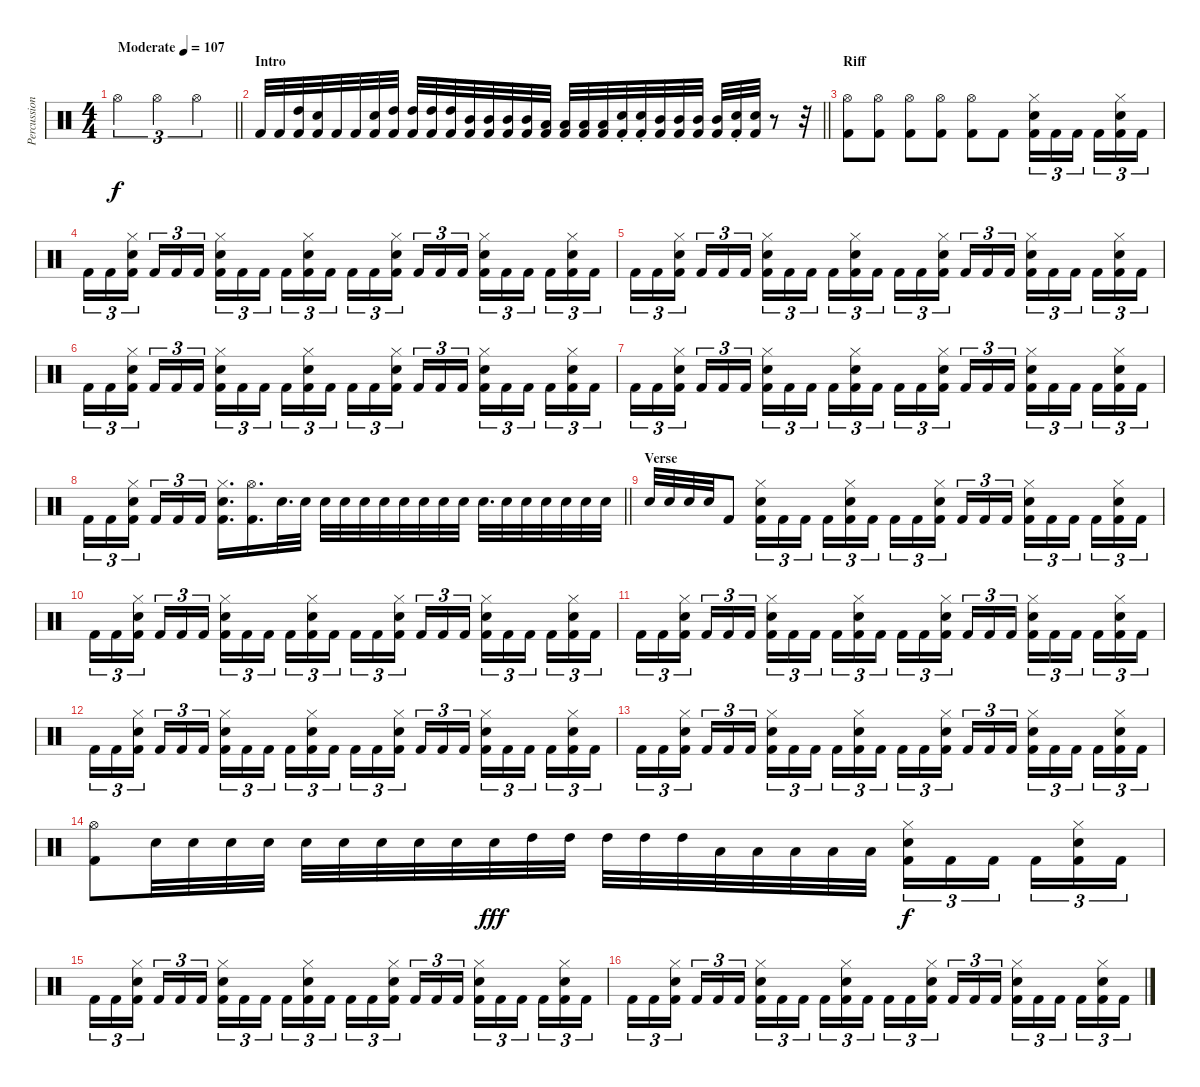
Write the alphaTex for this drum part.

\track ("Percussion" "Percussion") {instrument percussion}
\staff {score}
\articulation defaults
\ts (4 4)
\tempo (107 "Moderate")
\clef neutral
\barLineRight lightlight
\ks c "Hi-Hat (open)".2{tu (3 2) dy f} "Hi-Hat (open)".2{tu (3 2)} "Hi-Hat (open)".2{tu (3 2)}
|
\section ("" "Intro")
\barLineRight lightlight "Kick (hit) 2".32 "Kick (hit) 2".32
("High Tom (hit)" "Kick (hit) 2").32 ("Electric Snare (hit)" "Kick (hit) 2").32 "Kick (hit) 2".32 "Kick (hit) 2".32 ("Electric Snare (hit)" "Kick (hit) 2").32 ("High Tom (hit)" "Kick (hit) 2").32 ("High Tom (hit)" "Kick (hit) 2").32 ("High Tom (hit)" "Kick (hit) 2").32 ("High Tom (hit)" "Kick (hit) 2").32 ("Mid Tom (hit)" "Kick (hit) 2").32 ("Mid Tom (hit)" "Kick (hit) 2").32 ("Mid Tom (hit)" "Kick (hit) 2").32 ("Mid Tom (hit)" "Kick (hit) 2").32 ("Low Tom (hit)" "Kick (hit) 2").32 ("Low Tom (hit)" "Kick (hit) 2").32 ("Low Tom (hit)" "Kick (hit) 2").32 ("Low Tom (hit)" "Kick (hit) 2").32 ("Electric Snare (hit)"{st} "Kick (hit) 2").32 ("Electric Snare (hit)"{st} "Kick (hit) 2").32 ("Mid Tom (hit)" "Kick (hit) 2").32 ("Mid Tom (hit)" "Kick (hit) 2").32 ("Mid Tom (hit)" "Kick (hit) 2").32 ("Mid Tom (hit)" "Kick (hit) 2").32 ("Electric Snare (hit)"{st} "Kick (hit) 2").32 ("Electric Snare (hit)" "Kick (hit) 2").32 r.8 r.32 |
\section ("" "Riff")
("Hi-Hat (open)" "Kick (hit) 2").8 ("Hi-Hat (open)" "Kick (hit) 2").8 ("Hi-Hat (open)" "Kick (hit) 2").8 ("Hi-Hat (open)" "Kick (hit) 2").8 ("Hi-Hat (open)" "Kick (hit) 2").8 "Kick (hit) 2".8 ("Kick (hit) 2" "Electric Snare (hit)" "Hi-Hat (closed)").16{tu (3 2)} "Kick (hit) 2".16{tu (3 2)} "Kick (hit) 2".16{tu (3 2) beam splitsecondary} "Kick (hit) 2".16{tu (3 2)} ("Kick (hit) 2" "Electric Snare (hit)" "Hi-Hat (closed)").16{tu (3 2)} "Kick (hit) 2".16{tu (3 2)} |
"Kick (hit) 2".16{tu (3 2)} "Kick (hit) 2".16{tu (3 2)} ("Kick (hit) 2" "Electric Snare (hit)" "Hi-Hat (closed)").16{tu (3 2) beam splitsecondary} "Kick (hit) 2".16{tu (3 2)} "Kick (hit) 2".16{tu (3 2)} "Kick (hit) 2".16{tu (3 2)} ("Kick (hit) 2" "Electric Snare (hit)" "Hi-Hat (closed)").16{tu (3 2)} "Kick (hit) 2".16{tu (3 2)} "Kick (hit) 2".16{tu (3 2) beam splitsecondary} "Kick (hit) 2".16{tu (3 2)} ("Kick (hit) 2" "Electric Snare (hit)" "Hi-Hat (closed)").16{tu (3 2)} "Kick (hit) 2".16{tu (3 2)} "Kick (hit) 2".16{tu (3 2)} "Kick (hit) 2".16{tu (3 2)} ("Kick (hit) 2" "Electric Snare (hit)" "Hi-Hat (closed)").16{tu (3 2) beam splitsecondary} "Kick (hit) 2".16{tu (3 2)} "Kick (hit) 2".16{tu (3 2)} "Kick (hit) 2".16{tu (3 2)} ("Kick (hit) 2" "Electric Snare (hit)" "Hi-Hat (closed)").16{tu (3 2)} "Kick (hit) 2".16{tu (3 2)} "Kick (hit) 2".16{tu (3 2) beam splitsecondary} "Kick (hit) 2".16{tu (3 2)} ("Kick (hit) 2" "Hi-Hat (closed)" "Electric Snare (hit)").16{tu (3 2)} "Kick (hit) 2".16{tu (3 2)} |
"Kick (hit) 2".16{tu (3 2)} "Kick (hit) 2".16{tu (3 2)} ("Kick (hit) 2" "Electric Snare (hit)" "Hi-Hat (closed)").16{tu (3 2) beam splitsecondary} "Kick (hit) 2".16{tu (3 2)} "Kick (hit) 2".16{tu (3 2)} "Kick (hit) 2".16{tu (3 2)} ("Kick (hit) 2" "Electric Snare (hit)" "Hi-Hat (closed)").16{tu (3 2)} "Kick (hit) 2".16{tu (3 2)} "Kick (hit) 2".16{tu (3 2) beam splitsecondary} "Kick (hit) 2".16{tu (3 2)} ("Kick (hit) 2" "Electric Snare (hit)" "Hi-Hat (closed)").16{tu (3 2)} "Kick (hit) 2".16{tu (3 2)} "Kick (hit) 2".16{tu (3 2)} "Kick (hit) 2".16{tu (3 2)} ("Kick (hit) 2" "Electric Snare (hit)" "Hi-Hat (closed)").16{tu (3 2) beam splitsecondary} "Kick (hit) 2".16{tu (3 2)} "Kick (hit) 2".16{tu (3 2)} "Kick (hit) 2".16{tu (3 2)} ("Kick (hit) 2" "Electric Snare (hit)" "Hi-Hat (closed)").16{tu (3 2)} "Kick (hit) 2".16{tu (3 2)} "Kick (hit) 2".16{tu (3 2) beam splitsecondary} "Kick (hit) 2".16{tu (3 2)} ("Kick (hit) 2" "Hi-Hat (closed)" "Electric Snare (hit)").16{tu (3 2)} "Kick (hit) 2".16{tu (3 2)} |
"Kick (hit) 2".16{tu (3 2)} "Kick (hit) 2".16{tu (3 2)} ("Kick (hit) 2" "Electric Snare (hit)" "Hi-Hat (closed)").16{tu (3 2) beam splitsecondary} "Kick (hit) 2".16{tu (3 2)} "Kick (hit) 2".16{tu (3 2)} "Kick (hit) 2".16{tu (3 2)} ("Kick (hit) 2" "Electric Snare (hit)" "Hi-Hat (closed)").16{tu (3 2)} "Kick (hit) 2".16{tu (3 2)} "Kick (hit) 2".16{tu (3 2) beam splitsecondary} "Kick (hit) 2".16{tu (3 2)} ("Kick (hit) 2" "Electric Snare (hit)" "Hi-Hat (closed)").16{tu (3 2)} "Kick (hit) 2".16{tu (3 2)} "Kick (hit) 2".16{tu (3 2)} "Kick (hit) 2".16{tu (3 2)} ("Kick (hit) 2" "Electric Snare (hit)" "Hi-Hat (closed)").16{tu (3 2) beam splitsecondary} "Kick (hit) 2".16{tu (3 2)} "Kick (hit) 2".16{tu (3 2)} "Kick (hit) 2".16{tu (3 2)} ("Kick (hit) 2" "Electric Snare (hit)" "Hi-Hat (closed)").16{tu (3 2)} "Kick (hit) 2".16{tu (3 2)} "Kick (hit) 2".16{tu (3 2) beam splitsecondary} "Kick (hit) 2".16{tu (3 2)} ("Kick (hit) 2" "Hi-Hat (closed)" "Electric Snare (hit)").16{tu (3 2)} "Kick (hit) 2".16{tu (3 2)} |
"Kick (hit) 2".16{tu (3 2)} "Kick (hit) 2".16{tu (3 2)} ("Kick (hit) 2" "Electric Snare (hit)" "Hi-Hat (closed)").16{tu (3 2) beam splitsecondary} "Kick (hit) 2".16{tu (3 2)} "Kick (hit) 2".16{tu (3 2)} "Kick (hit) 2".16{tu (3 2)} ("Kick (hit) 2" "Electric Snare (hit)" "Hi-Hat (closed)").16{tu (3 2)} "Kick (hit) 2".16{tu (3 2)} "Kick (hit) 2".16{tu (3 2) beam splitsecondary} "Kick (hit) 2".16{tu (3 2)} ("Kick (hit) 2" "Electric Snare (hit)" "Hi-Hat (closed)").16{tu (3 2)} "Kick (hit) 2".16{tu (3 2)} "Kick (hit) 2".16{tu (3 2)} "Kick (hit) 2".16{tu (3 2)} ("Kick (hit) 2" "Electric Snare (hit)" "Hi-Hat (closed)").16{tu (3 2) beam splitsecondary} "Kick (hit) 2".16{tu (3 2)} "Kick (hit) 2".16{tu (3 2)} "Kick (hit) 2".16{tu (3 2)} ("Kick (hit) 2" "Electric Snare (hit)" "Hi-Hat (closed)").16{tu (3 2)} "Kick (hit) 2".16{tu (3 2)} "Kick (hit) 2".16{tu (3 2) beam splitsecondary} "Kick (hit) 2".16{tu (3 2)} ("Kick (hit) 2" "Hi-Hat (closed)" "Electric Snare (hit)").16{tu (3 2)} "Kick (hit) 2".16{tu (3 2)} |
\barLineRight lightlight "Kick (hit) 2".16{tu (3 2)} "Kick (hit) 2".16{tu (3 2)}
("Kick (hit) 2" "Electric Snare (hit)" "Hi-Hat (closed)").16{tu (3 2) beam splitsecondary} "Kick (hit) 2".16{tu (3 2)} "Kick (hit) 2".16{tu (3 2)} "Kick (hit) 2".16{tu (3 2)} ("Kick (hit) 2" "Electric Snare (hit)" "Hi-Hat (closed)").16{d} ("Kick (hit) 2" "Hi-Hat (open)").16{d} "Electric Snare (hit)".32{d} "Electric Snare (hit)".32 "Electric Snare (hit)".32 "Electric Snare (hit)".32 "Electric Snare (hit)".32 "Electric Snare (hit)".32 "Electric Snare (hit)".32 "Electric Snare (hit)".32 "Electric Snare (hit)".32 "Electric Snare (hit)".32 "Electric Snare (hit)".32{d} "Electric Snare (hit)".32 "Electric Snare (hit)".32 "Electric Snare (hit)".32 "Electric Snare (hit)".32 "Electric Snare (hit)".32 "Electric Snare (hit)".32 |
\section ("" "Verse")
"Electric Snare (hit)".32 "Electric Snare (hit)".32 "Electric Snare (hit)".32 "Electric Snare (hit)".32 "Kick (hit) 2".8 ("Kick (hit) 2" "Electric Snare (hit)" "Hi-Hat (closed)").16{tu (3 2)} "Kick (hit) 2".16{tu (3 2)} "Kick (hit) 2".16{tu (3 2) beam splitsecondary} "Kick (hit) 2".16{tu (3 2)} ("Kick (hit) 2" "Electric Snare (hit)" "Hi-Hat (closed)").16{tu (3 2)} "Kick (hit) 2".16{tu (3 2)} "Kick (hit) 2".16{tu (3 2)} "Kick (hit) 2".16{tu (3 2)} ("Kick (hit) 2" "Electric Snare (hit)" "Hi-Hat (closed)").16{tu (3 2) beam splitsecondary} "Kick (hit) 2".16{tu (3 2)} "Kick (hit) 2".16{tu (3 2)} "Kick (hit) 2".16{tu (3 2)} ("Kick (hit) 2" "Electric Snare (hit)" "Hi-Hat (closed)").16{tu (3 2)} "Kick (hit) 2".16{tu (3 2)} "Kick (hit) 2".16{tu (3 2) beam splitsecondary} "Kick (hit) 2".16{tu (3 2)} ("Kick (hit) 2" "Hi-Hat (closed)" "Electric Snare (hit)").16{tu (3 2)} "Kick (hit) 2".16{tu (3 2)} |
"Kick (hit) 2".16{tu (3 2)} "Kick (hit) 2".16{tu (3 2)} ("Kick (hit) 2" "Electric Snare (hit)" "Hi-Hat (closed)").16{tu (3 2) beam splitsecondary} "Kick (hit) 2".16{tu (3 2)} "Kick (hit) 2".16{tu (3 2)} "Kick (hit) 2".16{tu (3 2)} ("Kick (hit) 2" "Hi-Hat (closed)" "Electric Snare (hit)").16{tu (3 2)} "Kick (hit) 2".16{tu (3 2)} "Kick (hit) 2".16{tu (3 2) beam splitsecondary} "Kick (hit) 2".16{tu (3 2)} ("Kick (hit) 2" "Electric Snare (hit)" "Hi-Hat (closed)").16{tu (3 2)} "Kick (hit) 2".16{tu (3 2)} "Kick (hit) 2".16{tu (3 2)} "Kick (hit) 2".16{tu (3 2)} ("Kick (hit) 2" "Hi-Hat (closed)" "Electric Snare (hit)").16{tu (3 2) beam splitsecondary} "Kick (hit) 2".16{tu (3 2)} "Kick (hit) 2".16{tu (3 2)} "Kick (hit) 2".16{tu (3 2)} ("Kick (hit) 2" "Electric Snare (hit)" "Hi-Hat (closed)").16{tu (3 2)} "Kick (hit) 2".16{tu (3 2)} "Kick (hit) 2".16{tu (3 2) beam splitsecondary} "Kick (hit) 2".16{tu (3 2)} ("Kick (hit) 2" "Hi-Hat (closed)" "Electric Snare (hit)").16{tu (3 2)} "Kick (hit) 2".16{tu (3 2)} |
"Kick (hit) 2".16{tu (3 2)} "Kick (hit) 2".16{tu (3 2)} ("Kick (hit) 2" "Electric Snare (hit)" "Hi-Hat (closed)").16{tu (3 2) beam splitsecondary} "Kick (hit) 2".16{tu (3 2)} "Kick (hit) 2".16{tu (3 2)} "Kick (hit) 2".16{tu (3 2)} ("Kick (hit) 2" "Hi-Hat (closed)" "Electric Snare (hit)").16{tu (3 2)} "Kick (hit) 2".16{tu (3 2)} "Kick (hit) 2".16{tu (3 2) beam splitsecondary} "Kick (hit) 2".16{tu (3 2)} ("Kick (hit) 2" "Electric Snare (hit)" "Hi-Hat (closed)").16{tu (3 2)} "Kick (hit) 2".16{tu (3 2)} "Kick (hit) 2".16{tu (3 2)} "Kick (hit) 2".16{tu (3 2)} ("Kick (hit) 2" "Hi-Hat (closed)" "Electric Snare (hit)").16{tu (3 2) beam splitsecondary} "Kick (hit) 2".16{tu (3 2)} "Kick (hit) 2".16{tu (3 2)} "Kick (hit) 2".16{tu (3 2)} ("Kick (hit) 2" "Electric Snare (hit)" "Hi-Hat (closed)").16{tu (3 2)} "Kick (hit) 2".16{tu (3 2)} "Kick (hit) 2".16{tu (3 2) beam splitsecondary} "Kick (hit) 2".16{tu (3 2)} ("Kick (hit) 2" "Hi-Hat (closed)" "Electric Snare (hit)").16{tu (3 2)} "Kick (hit) 2".16{tu (3 2)} |
"Kick (hit) 2".16{tu (3 2)} "Kick (hit) 2".16{tu (3 2)} ("Kick (hit) 2" "Electric Snare (hit)" "Hi-Hat (closed)").16{tu (3 2) beam splitsecondary} "Kick (hit) 2".16{tu (3 2)} "Kick (hit) 2".16{tu (3 2)} "Kick (hit) 2".16{tu (3 2)} ("Kick (hit) 2" "Hi-Hat (closed)" "Electric Snare (hit)").16{tu (3 2)} "Kick (hit) 2".16{tu (3 2)} "Kick (hit) 2".16{tu (3 2) beam splitsecondary} "Kick (hit) 2".16{tu (3 2)} ("Kick (hit) 2" "Electric Snare (hit)" "Hi-Hat (closed)").16{tu (3 2)} "Kick (hit) 2".16{tu (3 2)} "Kick (hit) 2".16{tu (3 2)} "Kick (hit) 2".16{tu (3 2)} ("Kick (hit) 2" "Hi-Hat (closed)" "Electric Snare (hit)").16{tu (3 2) beam splitsecondary} "Kick (hit) 2".16{tu (3 2)} "Kick (hit) 2".16{tu (3 2)} "Kick (hit) 2".16{tu (3 2)} ("Kick (hit) 2" "Electric Snare (hit)" "Hi-Hat (closed)").16{tu (3 2)} "Kick (hit) 2".16{tu (3 2)} "Kick (hit) 2".16{tu (3 2) beam splitsecondary} "Kick (hit) 2".16{tu (3 2)} ("Kick (hit) 2" "Hi-Hat (closed)" "Electric Snare (hit)").16{tu (3 2)} "Kick (hit) 2".16{tu (3 2)} |
"Kick (hit) 2".16{tu (3 2)} "Kick (hit) 2".16{tu (3 2)} ("Kick (hit) 2" "Electric Snare (hit)" "Hi-Hat (closed)").16{tu (3 2) beam splitsecondary} "Kick (hit) 2".16{tu (3 2)} "Kick (hit) 2".16{tu (3 2)} "Kick (hit) 2".16{tu (3 2)} ("Kick (hit) 2" "Hi-Hat (closed)" "Electric Snare (hit)").16{tu (3 2)} "Kick (hit) 2".16{tu (3 2)} "Kick (hit) 2".16{tu (3 2) beam splitsecondary} "Kick (hit) 2".16{tu (3 2)} ("Kick (hit) 2" "Electric Snare (hit)" "Hi-Hat (closed)").16{tu (3 2)} "Kick (hit) 2".16{tu (3 2)} "Kick (hit) 2".16{tu (3 2)} "Kick (hit) 2".16{tu (3 2)} ("Kick (hit) 2" "Hi-Hat (closed)" "Electric Snare (hit)").16{tu (3 2) beam splitsecondary} "Kick (hit) 2".16{tu (3 2)} "Kick (hit) 2".16{tu (3 2)} "Kick (hit) 2".16{tu (3 2)} ("Kick (hit) 2" "Electric Snare (hit)" "Hi-Hat (closed)").16{tu (3 2)} "Kick (hit) 2".16{tu (3 2)} "Kick (hit) 2".16{tu (3 2) beam splitsecondary} "Kick (hit) 2".16{tu (3 2)} ("Kick (hit) 2" "Hi-Hat (closed)" "Electric Snare (hit)").16{tu (3 2)} "Kick (hit) 2".16{tu (3 2)} |
("Kick (hit) 2" "Hi-Hat (open)").8 "Electric Snare (hit)".32 "Electric Snare (hit)".32 "Electric Snare (hit)".32 "Electric Snare (hit)".32 "Electric Snare (hit)".32 "Electric Snare (hit)".32 "Electric Snare (hit)".32 "Electric Snare (hit)".32 "Electric Snare (hit)".32 "Electric Snare (hit)".32{dy fff} "High Tom (hit)".32 "High Tom (hit)".32 "High Tom (hit)".32 "High Tom (hit)".32 "High Tom (hit)".32 "Low Tom (hit)".32 "Low Tom (hit)".32 "Low Tom (hit)".32 "Low Tom (hit)".32 "Low Tom (hit)".32 ("Kick (hit) 2" "Hi-Hat (closed)" "Electric Snare (hit)").16{tu (3 2) dy f} "Kick (hit) 2".16{tu (3 2)} "Kick (hit) 2".16{tu (3 2) beam splitsecondary} "Kick (hit) 2".16{tu (3 2)} ("Kick (hit) 2" "Electric Snare (hit)" "Hi-Hat (closed)").16{tu (3 2)} "Kick (hit) 2".16{tu (3 2)} |
"Kick (hit) 2".16{tu (3 2)} "Kick (hit) 2".16{tu (3 2)} ("Kick (hit) 2" "Hi-Hat (closed)" "Electric Snare (hit)").16{tu (3 2) beam splitsecondary} "Kick (hit) 2".16{tu (3 2)} "Kick (hit) 2".16{tu (3 2)} "Kick (hit) 2".16{tu (3 2)} ("Kick (hit) 2" "Electric Snare (hit)" "Hi-Hat (closed)").16{tu (3 2)} "Kick (hit) 2".16{tu (3 2)} "Kick (hit) 2".16{tu (3 2) beam splitsecondary} "Kick (hit) 2".16{tu (3 2)} ("Kick (hit) 2" "Hi-Hat (closed)" "Electric Snare (hit)").16{tu (3 2)} "Kick (hit) 2".16{tu (3 2)} "Kick (hit) 2".16{tu (3 2)} "Kick (hit) 2".16{tu (3 2)} ("Kick (hit) 2" "Electric Snare (hit)" "Hi-Hat (closed)").16{tu (3 2) beam splitsecondary} "Kick (hit) 2".16{tu (3 2)} "Kick (hit) 2".16{tu (3 2)} "Kick (hit) 2".16{tu (3 2)} ("Kick (hit) 2" "Hi-Hat (closed)" "Electric Snare (hit)").16{tu (3 2)} "Kick (hit) 2".16{tu (3 2)} "Kick (hit) 2".16{tu (3 2) beam splitsecondary} "Kick (hit) 2".16{tu (3 2)} ("Kick (hit) 2" "Electric Snare (hit)" "Hi-Hat (closed)").16{tu (3 2)} "Kick (hit) 2".16{tu (3 2)} |
"Kick (hit) 2".16{tu (3 2)} "Kick (hit) 2".16{tu (3 2)} ("Kick (hit) 2" "Hi-Hat (closed)" "Electric Snare (hit)").16{tu (3 2) beam splitsecondary} "Kick (hit) 2".16{tu (3 2)} "Kick (hit) 2".16{tu (3 2)} "Kick (hit) 2".16{tu (3 2)} ("Kick (hit) 2" "Electric Snare (hit)" "Hi-Hat (closed)").16{tu (3 2)} "Kick (hit) 2".16{tu (3 2)} "Kick (hit) 2".16{tu (3 2) beam splitsecondary} "Kick (hit) 2".16{tu (3 2)} ("Kick (hit) 2" "Hi-Hat (closed)" "Electric Snare (hit)").16{tu (3 2)} "Kick (hit) 2".16{tu (3 2)} "Kick (hit) 2".16{tu (3 2)} "Kick (hit) 2".16{tu (3 2)} ("Kick (hit) 2" "Electric Snare (hit)" "Hi-Hat (closed)").16{tu (3 2) beam splitsecondary} "Kick (hit) 2".16{tu (3 2)} "Kick (hit) 2".16{tu (3 2)} "Kick (hit) 2".16{tu (3 2)} ("Kick (hit) 2" "Hi-Hat (closed)" "Electric Snare (hit)").16{tu (3 2)} "Kick (hit) 2".16{tu (3 2)} "Kick (hit) 2".16{tu (3 2) beam splitsecondary} "Kick (hit) 2".16{tu (3 2)} ("Kick (hit) 2" "Electric Snare (hit)" "Hi-Hat (closed)").16{tu (3 2)} "Kick (hit) 2".16{tu (3 2)}
